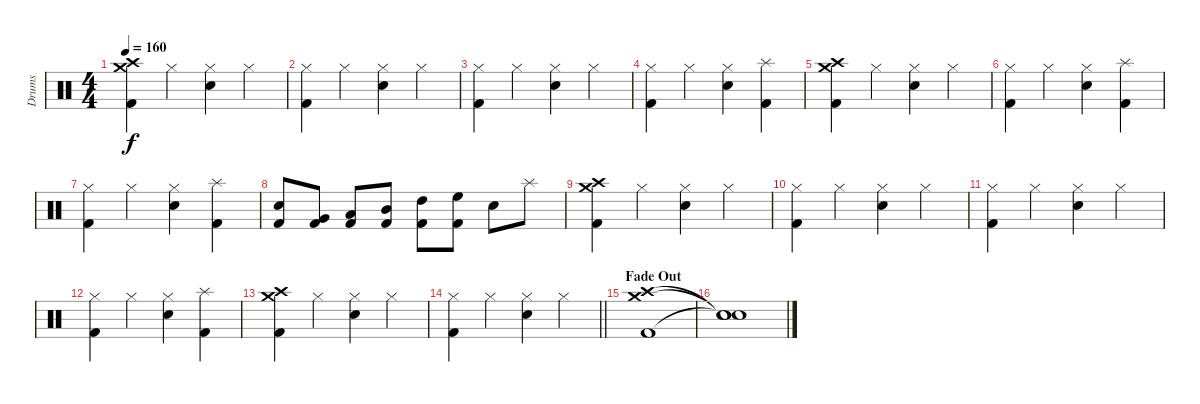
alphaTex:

\track ("Drums" "Drums") {instrument percussion}
\staff {score}
\articulation defaults
\ts (4 4)
\tempo 160
\clef neutral
\ks c
("Kick (hit) 2" "Crash high (hit)" "Crash medium (hit)").4{dy f} "Hi-Hat (closed)".4 ("Hi-Hat (closed)" "Electric Snare (hit)").4 "Hi-Hat (closed)".4 |
("Kick (hit) 2" "Hi-Hat (closed)").4 "Hi-Hat (closed)".4 ("Hi-Hat (closed)" "Electric Snare (hit)").4 "Hi-Hat (closed)".4 |
("Kick (hit) 2" "Hi-Hat (closed)").4 "Hi-Hat (closed)".4 ("Hi-Hat (closed)" "Electric Snare (hit)").4 "Hi-Hat (closed)".4 |
("Kick (hit) 2" "Hi-Hat (closed)").4 "Hi-Hat (closed)".4 ("Hi-Hat (closed)" "Electric Snare (hit)").4 ("Kick (hit) 2" "Splash (hit)").4 |
("Kick (hit) 2" "Crash high (hit)" "Crash medium (hit)").4 "Hi-Hat (closed)".4 ("Hi-Hat (closed)" "Electric Snare (hit)").4 "Hi-Hat (closed)".4 |
("Kick (hit) 2" "Hi-Hat (closed)").4 "Hi-Hat (closed)".4 ("Hi-Hat (closed)" "Electric Snare (hit)").4 ("Kick (hit) 2" "Splash (hit)").4 |
("Kick (hit) 2" "Hi-Hat (closed)").4 "Hi-Hat (closed)".4 ("Hi-Hat (closed)" "Electric Snare (hit)").4 ("Kick (hit) 2" "Splash (hit)").4 |
("Kick (hit) 2" "Electric Snare (hit)").8 ("Kick (hit) 2" "Very Low Tom (hit)").8 ("Kick (hit) 2" "Low Tom (hit)").8 ("Kick (hit) 2" "Mid Tom (hit)").8 ("Kick (hit) 2" "High Tom (hit)").8 ("Kick (hit) 2" "High Floor Tom (hit)").8 "Electric Snare (hit)".8 "Splash (hit)".8 |
("Kick (hit) 2" "Crash high (hit)" "Crash medium (hit)").4 "Hi-Hat (closed)".4 ("Hi-Hat (closed)" "Electric Snare (hit)").4 "Hi-Hat (closed)".4 |
("Kick (hit) 2" "Hi-Hat (closed)").4 "Hi-Hat (closed)".4 ("Hi-Hat (closed)" "Electric Snare (hit)").4 "Hi-Hat (closed)".4 |
("Kick (hit) 2" "Hi-Hat (closed)").4 "Hi-Hat (closed)".4 ("Hi-Hat (closed)" "Electric Snare (hit)").4 "Hi-Hat (closed)".4 |
("Kick (hit) 2" "Hi-Hat (closed)").4 "Hi-Hat (closed)".4 ("Hi-Hat (closed)" "Electric Snare (hit)").4 ("Kick (hit) 2" "Splash (hit)").4 |
("Kick (hit) 2" "Crash high (hit)" "Crash medium (hit)").4 "Hi-Hat (closed)".4 ("Hi-Hat (closed)" "Electric Snare (hit)").4 "Hi-Hat (closed)".4 |
\barLineRight lightlight
("Kick (hit) 2" "Hi-Hat (closed)").4 "Hi-Hat (closed)".4 ("Hi-Hat (closed)" "Electric Snare (hit)").4 "Hi-Hat (closed)".4 |
\section ("" "Fade Out")
("Kick (hit) 2" "Crash high (hit)" "Crash medium (hit)").1 |
("Snare (hit)"{t} "Snare (hit)"{t} "Snare (hit)"{t}).1
